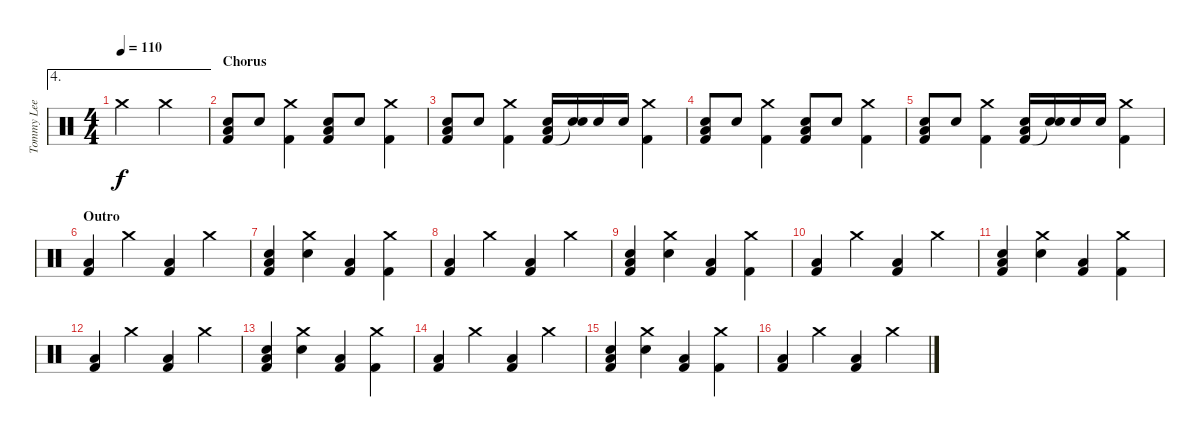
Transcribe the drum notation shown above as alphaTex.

\track ("Tommy Lee" "Tommy Lee") {instrument percussion}
\staff {score}
\articulation defaults
\ae 4
\ts (4 4)
\tempo 110
\clef neutral
\ks c "Crash medium (hit)".2{dy f} "Crash medium (hit)".2
|
\section ("" "Chorus")
("Kick (hit) 2" "Low Floor Tom (hit)" "Electric Snare (hit)").8 "Electric Snare (hit)".8 ("Kick (hit) 2" "Crash medium (hit)").4 ("Kick (hit) 2" "Low Floor Tom (hit)" "Electric Snare (hit)").8 "Electric Snare (hit)".8 ("Kick (hit) 2" "Crash medium (hit)").4 |
("Kick (hit) 2" "Low Floor Tom (hit)" "Electric Snare (hit)").8 "Electric Snare (hit)".8 ("Kick (hit) 2" "Crash medium (hit)").4 ("Kick (hit) 2" "Low Floor Tom (hit)" "Electric Snare (hit)").16 ("Snare (hit)"{t} "Electric Snare (hit)").16 "Electric Snare (hit)".16 "Electric Snare (hit)".16 ("Kick (hit) 2" "Crash medium (hit)").4 |
("Kick (hit) 2" "Low Floor Tom (hit)" "Electric Snare (hit)").8 "Electric Snare (hit)".8 ("Kick (hit) 2" "Crash medium (hit)").4 ("Kick (hit) 2" "Low Floor Tom (hit)" "Electric Snare (hit)").8 "Electric Snare (hit)".8 ("Kick (hit) 2" "Crash medium (hit)").4 |
("Kick (hit) 2" "Low Floor Tom (hit)" "Electric Snare (hit)").8 "Electric Snare (hit)".8 ("Kick (hit) 2" "Crash medium (hit)").4 ("Kick (hit) 2" "Low Floor Tom (hit)" "Electric Snare (hit)").16 ("Snare (hit)"{t} "Electric Snare (hit)").16 "Electric Snare (hit)".16 "Electric Snare (hit)".16 ("Kick (hit) 2" "Crash medium (hit)").4 |
\section ("" "Outro")
("Kick (hit) 2" "Low Floor Tom (hit)").4 "Crash medium (hit)".4 ("Kick (hit) 2" "Low Floor Tom (hit)").4 "Crash medium (hit)".4 |
("Kick (hit) 2" "Low Floor Tom (hit)" "Electric Snare (hit)").4 ("Crash medium (hit)" "Electric Snare (hit)").4 ("Kick (hit) 2" "Low Floor Tom (hit)").4 ("Kick (hit) 2" "Crash medium (hit)").4 |
("Kick (hit) 2" "Low Floor Tom (hit)").4 "Crash medium (hit)".4 ("Kick (hit) 2" "Low Floor Tom (hit)").4 "Crash medium (hit)".4 |
("Kick (hit) 2" "Low Floor Tom (hit)" "Electric Snare (hit)").4 ("Crash medium (hit)" "Electric Snare (hit)").4 ("Kick (hit) 2" "Low Floor Tom (hit)").4 ("Kick (hit) 2" "Crash medium (hit)").4 |
("Kick (hit) 2" "Low Floor Tom (hit)").4 "Crash medium (hit)".4 ("Kick (hit) 2" "Low Floor Tom (hit)").4 "Crash medium (hit)".4 |
("Kick (hit) 2" "Low Floor Tom (hit)" "Electric Snare (hit)").4 ("Crash medium (hit)" "Electric Snare (hit)").4 ("Kick (hit) 2" "Low Floor Tom (hit)").4 ("Kick (hit) 2" "Crash medium (hit)").4 |
("Kick (hit) 2" "Low Floor Tom (hit)").4 "Crash medium (hit)".4 ("Kick (hit) 2" "Low Floor Tom (hit)").4 "Crash medium (hit)".4 |
("Kick (hit) 2" "Low Floor Tom (hit)" "Electric Snare (hit)").4 ("Crash medium (hit)" "Electric Snare (hit)").4 ("Kick (hit) 2" "Low Floor Tom (hit)").4 ("Kick (hit) 2" "Crash medium (hit)").4 |
("Kick (hit) 2" "Low Floor Tom (hit)").4 "Crash medium (hit)".4 ("Kick (hit) 2" "Low Floor Tom (hit)").4 "Crash medium (hit)".4 |
("Kick (hit) 2" "Low Floor Tom (hit)" "Electric Snare (hit)").4 ("Crash medium (hit)" "Electric Snare (hit)").4 ("Kick (hit) 2" "Low Floor Tom (hit)").4 ("Kick (hit) 2" "Crash medium (hit)").4 |
("Kick (hit) 2" "Low Floor Tom (hit)").4 "Crash medium (hit)".4 ("Kick (hit) 2" "Low Floor Tom (hit)").4 "Crash medium (hit)".4
